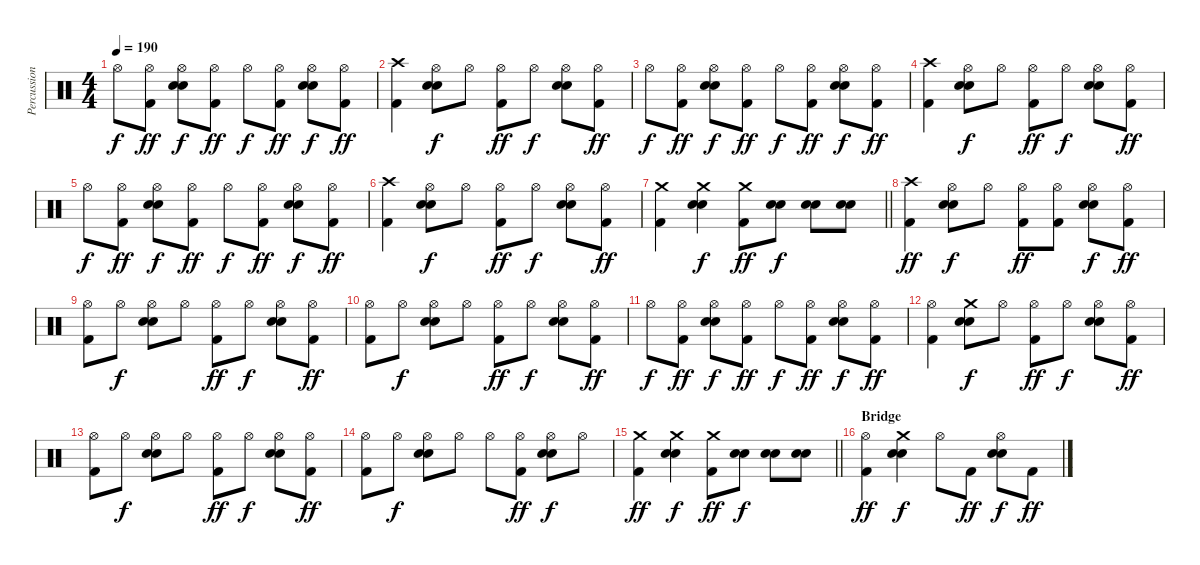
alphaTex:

\track ("Percussion" "Percussion") {instrument percussion}
\staff {score}
\articulation defaults
\ts (4 4)
\tempo 190
\clef neutral
\ks c "Hi-Hat (open)".8{dy f}
("Hi-Hat (open)" "Kick (hit) 2").8{dy ff} ("Hi-Hat (open)" "Electric Snare (hit)" "Snare (hit) 2").8{dy f} ("Hi-Hat (open)" "Kick (hit) 2").8{dy ff} "Hi-Hat (open)".8{dy f} ("Hi-Hat (open)" "Kick (hit) 2").8{dy ff} ("Hi-Hat (open)" "Electric Snare (hit)" "Snare (hit) 2").8{dy f} ("Hi-Hat (open)" "Kick (hit) 2").8{dy ff} |
("Crash high (hit)" "Kick (hit) 2").4 ("Hi-Hat (open)" "Electric Snare (hit)" "Snare (hit) 2").8{dy f} "Hi-Hat (open)".8 ("Hi-Hat (open)" "Kick (hit) 2").8{dy ff} "Hi-Hat (open)".8{dy f} ("Hi-Hat (open)" "Electric Snare (hit)" "Snare (hit) 2").8 ("Hi-Hat (open)" "Kick (hit) 2").8{dy ff} |
"Hi-Hat (open)".8{dy f} ("Hi-Hat (open)" "Kick (hit) 2").8{dy ff} ("Hi-Hat (open)" "Electric Snare (hit)" "Snare (hit) 2").8{dy f} ("Hi-Hat (open)" "Kick (hit) 2").8{dy ff} "Hi-Hat (open)".8{dy f} ("Hi-Hat (open)" "Kick (hit) 2").8{dy ff} ("Hi-Hat (open)" "Electric Snare (hit)" "Snare (hit) 2").8{dy f} ("Hi-Hat (open)" "Kick (hit) 2").8{dy ff} |
("Crash high (hit)" "Kick (hit) 2").4 ("Hi-Hat (open)" "Electric Snare (hit)" "Snare (hit) 2").8{dy f} "Hi-Hat (open)".8 ("Hi-Hat (open)" "Kick (hit) 2").8{dy ff} "Hi-Hat (open)".8{dy f} ("Hi-Hat (open)" "Electric Snare (hit)" "Snare (hit) 2").8 ("Hi-Hat (open)" "Kick (hit) 2").8{dy ff} |
"Hi-Hat (open)".8{dy f} ("Hi-Hat (open)" "Kick (hit) 2").8{dy ff} ("Hi-Hat (open)" "Electric Snare (hit)" "Snare (hit) 2").8{dy f} ("Hi-Hat (open)" "Kick (hit) 2").8{dy ff} "Hi-Hat (open)".8{dy f} ("Hi-Hat (open)" "Kick (hit) 2").8{dy ff} ("Hi-Hat (open)" "Electric Snare (hit)" "Snare (hit) 2").8{dy f} ("Hi-Hat (open)" "Kick (hit) 2").8{dy ff} |
("Crash high (hit)" "Kick (hit) 2").4 ("Hi-Hat (open)" "Electric Snare (hit)" "Snare (hit) 2").8{dy f} "Hi-Hat (open)".8 ("Hi-Hat (open)" "Kick (hit) 2").8{dy ff} "Hi-Hat (open)".8{dy f} ("Hi-Hat (open)" "Electric Snare (hit)" "Snare (hit) 2").8 ("Hi-Hat (open)" "Kick (hit) 2").8{dy ff} |
\barLineRight lightlight
("Crash medium (hit)" "Kick (hit) 2").4 ("Crash medium (hit)" "Electric Snare (hit)" "Snare (hit) 2").4{dy f} ("Crash medium (hit)" "Kick (hit) 2").8{dy ff} ("Electric Snare (hit)" "Snare (hit) 2").8{dy f} ("Electric Snare (hit)" "Snare (hit) 2").8 ("Electric Snare (hit)" "Snare (hit) 2").8 |
("Crash high (hit)" "Kick (hit) 2").4{dy ff} ("Hi-Hat (open)" "Electric Snare (hit)" "Snare (hit) 2").8{dy f} "Hi-Hat (open)".8 ("Hi-Hat (open)" "Kick (hit) 2").8{dy ff} ("Hi-Hat (open)" "Kick (hit) 2").8 ("Hi-Hat (open)" "Electric Snare (hit)" "Snare (hit) 2").8{dy f} ("Hi-Hat (open)" "Kick (hit) 2").8{dy ff} |
("Hi-Hat (open)" "Kick (hit) 2").8 "Hi-Hat (open)".8{dy f} ("Hi-Hat (open)" "Electric Snare (hit)" "Snare (hit) 2").8 "Hi-Hat (open)".8 ("Hi-Hat (open)" "Kick (hit) 2").8{dy ff} "Hi-Hat (open)".8{dy f} ("Hi-Hat (open)" "Electric Snare (hit)" "Snare (hit) 2").8 ("Hi-Hat (open)" "Kick (hit) 2").8{dy ff} |
("Hi-Hat (open)" "Kick (hit) 2").8 "Hi-Hat (open)".8{dy f} ("Hi-Hat (open)" "Electric Snare (hit)" "Snare (hit) 2").8 "Hi-Hat (open)".8 ("Hi-Hat (open)" "Kick (hit) 2").8{dy ff} "Hi-Hat (open)".8{dy f} ("Hi-Hat (open)" "Electric Snare (hit)" "Snare (hit) 2").8 ("Hi-Hat (open)" "Kick (hit) 2").8{dy ff} |
"Hi-Hat (open)".8{dy f} ("Hi-Hat (open)" "Kick (hit) 2").8{dy ff} ("Hi-Hat (open)" "Electric Snare (hit)" "Snare (hit) 2").8{dy f} ("Hi-Hat (open)" "Kick (hit) 2").8{dy ff} "Hi-Hat (open)".8{dy f} ("Hi-Hat (open)" "Kick (hit) 2").8{dy ff} ("Hi-Hat (open)" "Electric Snare (hit)" "Snare (hit) 2").8{dy f} ("Hi-Hat (open)" "Kick (hit) 2").8{dy ff} |
("Hi-Hat (open)" "Kick (hit) 2").4 ("Crash medium (hit)" "Electric Snare (hit)" "Snare (hit) 2").8{dy f} "Hi-Hat (open)".8 ("Hi-Hat (open)" "Kick (hit) 2").8{dy ff} "Hi-Hat (open)".8{dy f} ("Hi-Hat (open)" "Electric Snare (hit)" "Snare (hit) 2").8 ("Hi-Hat (open)" "Kick (hit) 2").8{dy ff} |
("Hi-Hat (open)" "Kick (hit) 2").8 "Hi-Hat (open)".8{dy f} ("Hi-Hat (open)" "Electric Snare (hit)" "Snare (hit) 2").8 "Hi-Hat (open)".8 ("Hi-Hat (open)" "Kick (hit) 2").8{dy ff} "Hi-Hat (open)".8{dy f} ("Hi-Hat (open)" "Electric Snare (hit)" "Snare (hit) 2").8 ("Hi-Hat (open)" "Kick (hit) 2").8{dy ff} |
("Hi-Hat (open)" "Kick (hit) 2").8 "Hi-Hat (open)".8{dy f} ("Hi-Hat (open)" "Electric Snare (hit)" "Snare (hit) 2").8 "Hi-Hat (open)".8 "Hi-Hat (open)".8 ("Hi-Hat (open)" "Kick (hit) 2").8{dy ff} ("Hi-Hat (open)" "Electric Snare (hit)" "Snare (hit) 2").8{dy f} "Hi-Hat (open)".8 |
\barLineRight lightlight
("Crash medium (hit)" "Kick (hit) 2").4{dy ff} ("Crash medium (hit)" "Electric Snare (hit)" "Snare (hit) 2").4{dy f} ("Crash medium (hit)" "Kick (hit) 2").8{dy ff} ("Electric Snare (hit)" "Snare (hit) 2").8{dy f} ("Electric Snare (hit)" "Snare (hit) 2").8 ("Electric Snare (hit)" "Snare (hit) 2").8 |
\section ("" "Bridge")
("Hi-Hat (open)" "Kick (hit) 2").4{dy ff} ("Crash medium (hit)" "Electric Snare (hit)" "Snare (hit) 2").4{dy f} "Hi-Hat (open)".8 "Kick (hit) 2".8{dy ff} ("Hi-Hat (open)" "Electric Snare (hit)" "Snare (hit) 2").8{dy f} "Kick (hit) 2".8{dy ff}
